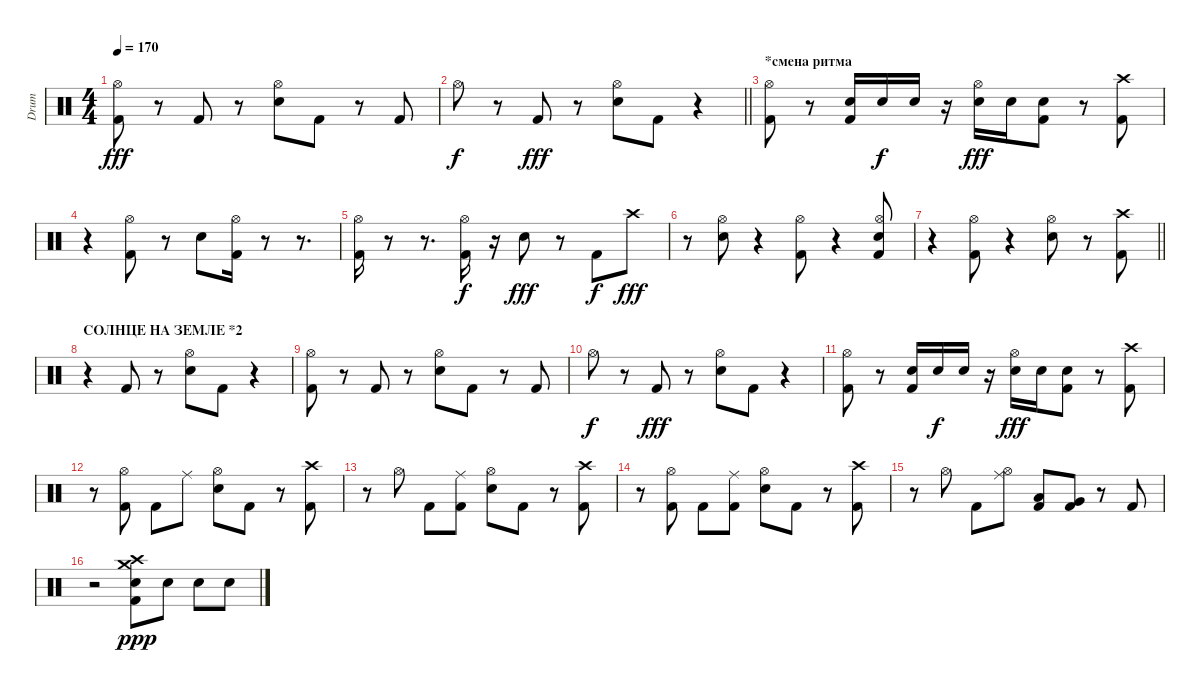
\track ("Drum" "Drum") {instrument percussion}
\staff {score}
\articulation defaults
\ts (4 4)
\tempo 170
\clef neutral
\ks c
("Kick (hit) 2" "Hi-Hat (open)").8{dy fff} r.8 "Kick (hit) 2".8 r.8 ("Snare (hit) 2" "Hi-Hat (open)").8 "Kick (hit) 2".8 r.8 "Kick (hit) 2".8 |
\barLineRight lightlight "Hi-Hat (open)".8{dy f}
r.8 "Kick (hit) 2".8{dy fff} r.8 ("Snare (hit) 2" "Hi-Hat (open)").8 "Kick (hit) 2".8 r.4 |
\section ("" "*смена ритма")
("Kick (hit) 2" "Hi-Hat (open)").8 r.8 ("Snare (hit) 2" "Kick (hit) 2").16 "Snare (hit) 2".16{dy f} "Snare (hit) 2".16 r.16 ("Snare (hit) 2" "Hi-Hat (open)").16{dy fff} "Snare (hit) 2".16 ("Snare (hit) 2" "Kick (hit) 2").8 r.8 ("Kick (hit) 2" "Crash high (hit)").8 |
r.4 ("Hi-Hat (open)" "Kick (hit) 2").8 r.8 "Snare (hit) 2".8 ("Hi-Hat (open)" "Kick (hit) 2").16 r.8 r.8{d} |
("Kick (hit) 2" "Hi-Hat (open)").16 r.8 r.8{d} ("Kick (hit) 2" "Hi-Hat (open)").16{dy f} r.16 "Snare (hit) 2".8{dy fff} r.8 "Kick (hit) 2".8{dy f} "Crash high (hit)".8{dy fff} |
r.8 ("Hi-Hat (open)" "Snare (hit) 2").8 r.4 ("Kick (hit) 2" "Hi-Hat (open)").8 r.4 ("Kick (hit) 2" "Snare (hit) 2" "Hi-Hat (open)").8 |
\barLineRight lightlight
r.4 ("Kick (hit) 2" "Hi-Hat (open)").8 r.4 ("Hi-Hat (open)" "Snare (hit) 2").8 r.8 ("Kick (hit) 2" "Crash high (hit)").8 |
\section ("" "СОЛНЦЕ НА ЗЕМЛЕ *2")
r.4 "Kick (hit) 2".8 r.8 ("Snare (hit) 2" "Hi-Hat (open)").8 "Kick (hit) 2".8 r.4 |
("Kick (hit) 2" "Hi-Hat (open)").8 r.8 "Kick (hit) 2".8 r.8 ("Snare (hit) 2" "Hi-Hat (open)").8 "Kick (hit) 2".8 r.8 "Kick (hit) 2".8 |
"Hi-Hat (open)".8{dy f} r.8 "Kick (hit) 2".8{dy fff} r.8 ("Snare (hit) 2" "Hi-Hat (open)").8 "Kick (hit) 2".8 r.4 |
("Kick (hit) 2" "Hi-Hat (open)").8 r.8 ("Snare (hit) 2" "Kick (hit) 2").16 "Snare (hit) 2".16{dy f} "Snare (hit) 2".16 r.16 ("Snare (hit) 2" "Hi-Hat (open)").16{dy fff} "Snare (hit) 2".16 ("Snare (hit) 2" "Kick (hit) 2").8 r.8 ("Kick (hit) 2" "Crash high (hit)").8 |
r.8 ("Kick (hit) 2" "Hi-Hat (open)").8 "Kick (hit) 2".8 "Ride (middle)".8 ("Snare (hit) 2" "Hi-Hat (open)").8 "Kick (hit) 2".8 r.8 ("Kick (hit) 2" "Crash high (hit)").8 |
r.8 "Hi-Hat (open)".8 "Kick (hit) 2".8 ("Kick (hit) 2" "Ride (middle)").8 ("Snare (hit) 2" "Hi-Hat (open)").8 "Kick (hit) 2".8 r.8 ("Kick (hit) 2" "Crash high (hit)").8 |
r.8 ("Kick (hit) 2" "Hi-Hat (open)").8 "Kick (hit) 2".8 ("Kick (hit) 2" "Ride (middle)").8 ("Snare (hit) 2" "Hi-Hat (open)").8 "Kick (hit) 2".8 r.8 ("Kick (hit) 2" "Crash high (hit)").8 |
r.8 "Hi-Hat (open)".8 "Kick (hit) 2".8 ("Hi-Hat (open)" "Ride (middle)").8 ("Low Tom (hit)" "Kick (hit) 2").8 ("Very Low Tom (hit)" "Kick (hit) 2").8 r.8 "Kick (hit) 2".8 |
r.2 ("Crash medium (hit)" "Crash high (hit)" "Kick (hit) 2" "Snare (hit) 2").8{dy ppp} "Snare (hit) 2".8 "Snare (hit) 2".8 "Snare (hit) 2".8
